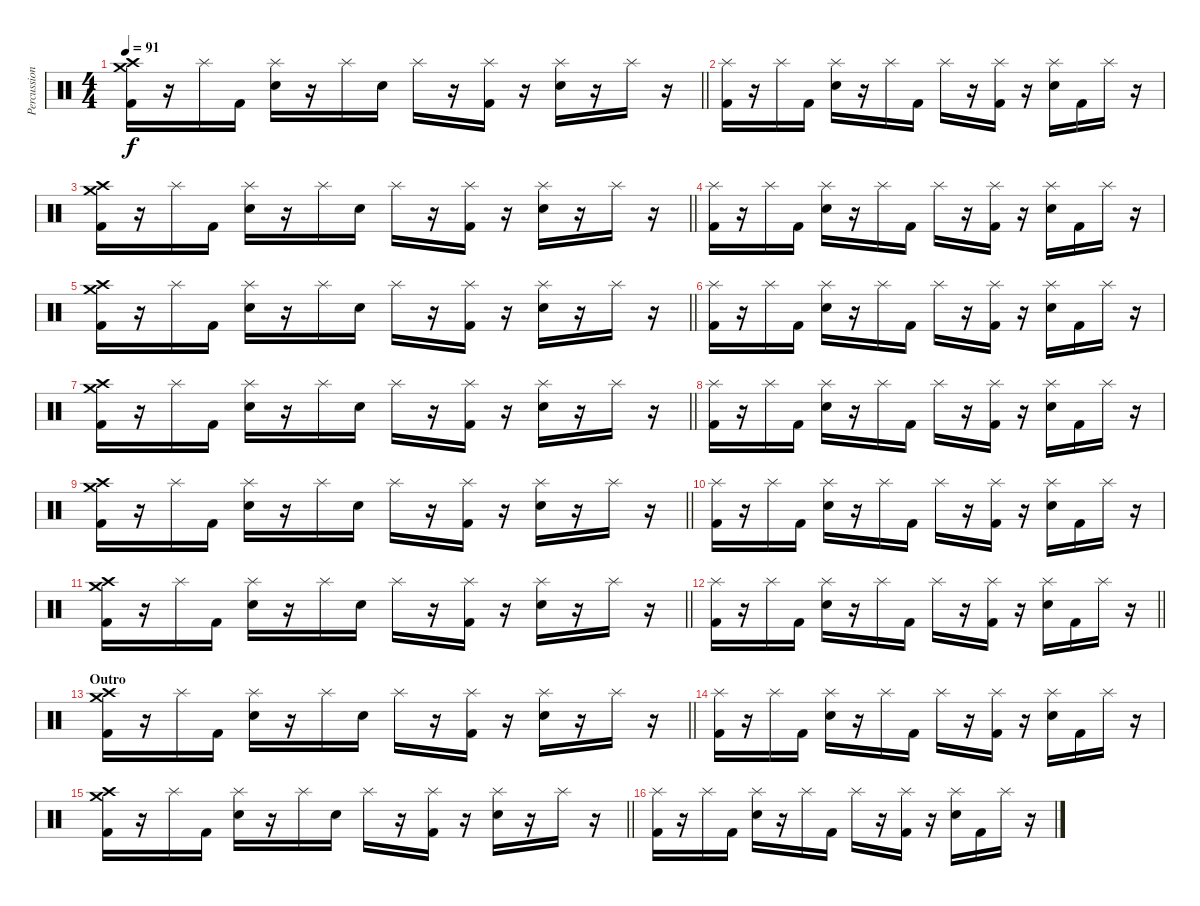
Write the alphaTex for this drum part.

\track ("Percussion" "Percussion") {instrument percussion}
\staff {score}
\articulation defaults
\ts (4 4)
\tempo 91
\clef neutral
\barLineRight lightlight
\ks c
("Crash high (hit)" "Crash medium (hit)" "Kick (hit) 2").16{dy f} r.16 "Splash (hit)".16 "Kick (hit) 2".16 ("Splash (hit)" "Electric Snare (hit)").16 r.16 "Splash (hit)".16 "Electric Snare (hit)".16 "Splash (hit)".16 r.16 ("Splash (hit)" "Kick (hit) 2").16 r.16 ("Splash (hit)" "Electric Snare (hit)").16 r.16 "Splash (hit)".16 r.16 |
("Splash (hit)" "Kick (hit) 2").16 r.16 "Splash (hit)".16 "Kick (hit) 2".16 ("Splash (hit)" "Electric Snare (hit)").16 r.16 "Splash (hit)".16 "Kick (hit) 2".16 "Splash (hit)".16 r.16 ("Splash (hit)" "Kick (hit) 2").16 r.16 ("Splash (hit)" "Electric Snare (hit)").16 "Kick (hit) 2".16 "Splash (hit)".16 r.16 |
\barLineRight lightlight
("Crash high (hit)" "Crash medium (hit)" "Kick (hit) 2").16 r.16 "Splash (hit)".16 "Kick (hit) 2".16 ("Splash (hit)" "Electric Snare (hit)").16 r.16 "Splash (hit)".16 "Electric Snare (hit)".16 "Splash (hit)".16 r.16 ("Splash (hit)" "Kick (hit) 2").16 r.16 ("Splash (hit)" "Electric Snare (hit)").16 r.16 "Splash (hit)".16 r.16 |
("Splash (hit)" "Kick (hit) 2").16 r.16 "Splash (hit)".16 "Kick (hit) 2".16 ("Splash (hit)" "Electric Snare (hit)").16 r.16 "Splash (hit)".16 "Kick (hit) 2".16 "Splash (hit)".16 r.16 ("Splash (hit)" "Kick (hit) 2").16 r.16 ("Splash (hit)" "Electric Snare (hit)").16 "Kick (hit) 2".16 "Splash (hit)".16 r.16 |
\barLineRight lightlight
("Crash high (hit)" "Crash medium (hit)" "Kick (hit) 2").16 r.16 "Splash (hit)".16 "Kick (hit) 2".16 ("Splash (hit)" "Electric Snare (hit)").16 r.16 "Splash (hit)".16 "Electric Snare (hit)".16 "Splash (hit)".16 r.16 ("Splash (hit)" "Kick (hit) 2").16 r.16 ("Splash (hit)" "Electric Snare (hit)").16 r.16 "Splash (hit)".16 r.16 |
("Splash (hit)" "Kick (hit) 2").16 r.16 "Splash (hit)".16 "Kick (hit) 2".16 ("Splash (hit)" "Electric Snare (hit)").16 r.16 "Splash (hit)".16 "Kick (hit) 2".16 "Splash (hit)".16 r.16 ("Splash (hit)" "Kick (hit) 2").16 r.16 ("Splash (hit)" "Electric Snare (hit)").16 "Kick (hit) 2".16 "Splash (hit)".16 r.16 |
\barLineRight lightlight
("Crash high (hit)" "Crash medium (hit)" "Kick (hit) 2").16 r.16 "Splash (hit)".16 "Kick (hit) 2".16 ("Splash (hit)" "Electric Snare (hit)").16 r.16 "Splash (hit)".16 "Electric Snare (hit)".16 "Splash (hit)".16 r.16 ("Splash (hit)" "Kick (hit) 2").16 r.16 ("Splash (hit)" "Electric Snare (hit)").16 r.16 "Splash (hit)".16 r.16 |
("Splash (hit)" "Kick (hit) 2").16 r.16 "Splash (hit)".16 "Kick (hit) 2".16 ("Splash (hit)" "Electric Snare (hit)").16 r.16 "Splash (hit)".16 "Kick (hit) 2".16 "Splash (hit)".16 r.16 ("Splash (hit)" "Kick (hit) 2").16 r.16 ("Splash (hit)" "Electric Snare (hit)").16 "Kick (hit) 2".16 "Splash (hit)".16 r.16 |
\barLineRight lightlight
("Crash high (hit)" "Crash medium (hit)" "Kick (hit) 2").16 r.16 "Splash (hit)".16 "Kick (hit) 2".16 ("Splash (hit)" "Electric Snare (hit)").16 r.16 "Splash (hit)".16 "Electric Snare (hit)".16 "Splash (hit)".16 r.16 ("Splash (hit)" "Kick (hit) 2").16 r.16 ("Splash (hit)" "Electric Snare (hit)").16 r.16 "Splash (hit)".16 r.16 |
("Splash (hit)" "Kick (hit) 2").16 r.16 "Splash (hit)".16 "Kick (hit) 2".16 ("Splash (hit)" "Electric Snare (hit)").16 r.16 "Splash (hit)".16 "Kick (hit) 2".16 "Splash (hit)".16 r.16 ("Splash (hit)" "Kick (hit) 2").16 r.16 ("Splash (hit)" "Electric Snare (hit)").16 "Kick (hit) 2".16 "Splash (hit)".16 r.16 |
\barLineRight lightlight
("Crash high (hit)" "Crash medium (hit)" "Kick (hit) 2").16 r.16 "Splash (hit)".16 "Kick (hit) 2".16 ("Splash (hit)" "Electric Snare (hit)").16 r.16 "Splash (hit)".16 "Electric Snare (hit)".16 "Splash (hit)".16 r.16 ("Splash (hit)" "Kick (hit) 2").16 r.16 ("Splash (hit)" "Electric Snare (hit)").16 r.16 "Splash (hit)".16 r.16 |
\barLineRight lightlight
("Splash (hit)" "Kick (hit) 2").16 r.16 "Splash (hit)".16 "Kick (hit) 2".16 ("Splash (hit)" "Electric Snare (hit)").16 r.16 "Splash (hit)".16 "Kick (hit) 2".16 "Splash (hit)".16 r.16 ("Splash (hit)" "Kick (hit) 2").16 r.16 ("Splash (hit)" "Electric Snare (hit)").16 "Kick (hit) 2".16 "Splash (hit)".16 r.16 |
\section ("" "Outro")
\barLineRight lightlight
("Crash high (hit)" "Crash medium (hit)" "Kick (hit) 2").16 r.16 "Splash (hit)".16 "Kick (hit) 2".16 ("Splash (hit)" "Electric Snare (hit)").16 r.16 "Splash (hit)".16 "Electric Snare (hit)".16 "Splash (hit)".16 r.16 ("Splash (hit)" "Kick (hit) 2").16 r.16 ("Splash (hit)" "Electric Snare (hit)").16 r.16 "Splash (hit)".16 r.16 |
("Splash (hit)" "Kick (hit) 2").16 r.16 "Splash (hit)".16 "Kick (hit) 2".16 ("Splash (hit)" "Electric Snare (hit)").16 r.16 "Splash (hit)".16 "Kick (hit) 2".16 "Splash (hit)".16 r.16 ("Splash (hit)" "Kick (hit) 2").16 r.16 ("Splash (hit)" "Electric Snare (hit)").16 "Kick (hit) 2".16 "Splash (hit)".16 r.16 |
\barLineRight lightlight
("Crash high (hit)" "Crash medium (hit)" "Kick (hit) 2").16 r.16 "Splash (hit)".16 "Kick (hit) 2".16 ("Splash (hit)" "Electric Snare (hit)").16 r.16 "Splash (hit)".16 "Electric Snare (hit)".16 "Splash (hit)".16 r.16 ("Splash (hit)" "Kick (hit) 2").16 r.16 ("Splash (hit)" "Electric Snare (hit)").16 r.16 "Splash (hit)".16 r.16 |
("Splash (hit)" "Kick (hit) 2").16 r.16 "Splash (hit)".16 "Kick (hit) 2".16 ("Splash (hit)" "Electric Snare (hit)").16 r.16 "Splash (hit)".16 "Kick (hit) 2".16 "Splash (hit)".16 r.16 ("Splash (hit)" "Kick (hit) 2").16 r.16 ("Splash (hit)" "Electric Snare (hit)").16 "Kick (hit) 2".16 "Splash (hit)".16 r.16
